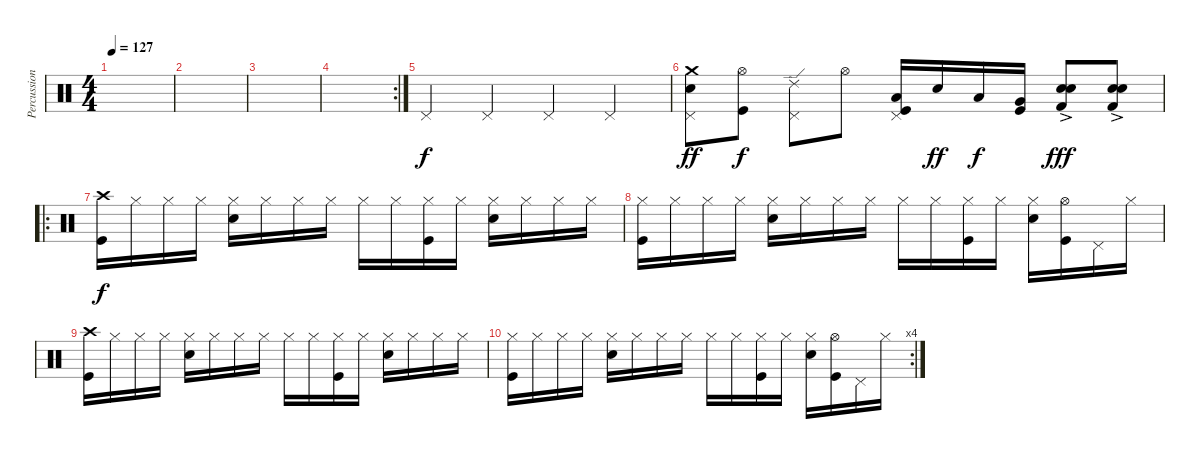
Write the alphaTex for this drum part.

\track ("Percussion" "Percussion") {instrument percussion}
\staff {score}
\articulation defaults
\ts (4 4)
\tempo 127
\clef neutral
\ks c
|
|
|
\rc 2
|
"Pedal Hi-Hat (hit)".4 "Pedal Hi-Hat (hit)".4 "Pedal Hi-Hat (hit)".4 "Pedal Hi-Hat (hit)".4 |
("Crash medium (hit)" "Pedal Hi-Hat (hit)" "Electric Snare (hit)").8{dy ff} ("Hi-Hat (open)" "Kick (hit)").8{dy f} ("Ride (edge) 2" "Pedal Hi-Hat (hit)").8 "Hi-Hat (open)".8 ("Pedal Hi-Hat (hit)" "Low Tom (hit)" "Kick (hit)").16 "Electric Snare (hit)".16{dy ff} "Low Tom (hit)".16{dy f} ("Very Low Tom (hit)" "Kick (hit)").16 ("Electric Snare (hit)" "Electric Snare (hit)"{ac} "Kick (hit) 2"{ac}).8{dy fff} ("Electric Snare (hit)" "Electric Snare (hit)"{ac} "Kick (hit) 2"{ac}).8 |
\ro
("Crash high (hit)" "Kick (hit)").16{dy f} "Hi-Hat (closed)".16 "Hi-Hat (closed)".16 "Hi-Hat (closed)".16 ("Hi-Hat (closed)" "Electric Snare (hit)").16 "Hi-Hat (closed)".16 "Hi-Hat (closed)".16 "Hi-Hat (closed)".16 "Hi-Hat (closed)".16 "Hi-Hat (closed)".16 ("Hi-Hat (closed)" "Kick (hit)").16 "Hi-Hat (closed)".16 ("Hi-Hat (closed)" "Electric Snare (hit)").16 "Hi-Hat (closed)".16 "Hi-Hat (closed)".16 "Hi-Hat (closed)".16 |
("Hi-Hat (closed)" "Kick (hit)").16 "Hi-Hat (closed)".16 "Hi-Hat (closed)".16 "Hi-Hat (closed)".16 ("Hi-Hat (closed)" "Electric Snare (hit)").16 "Hi-Hat (closed)".16 "Hi-Hat (closed)".16 "Hi-Hat (closed)".16 "Hi-Hat (closed)".16 "Hi-Hat (closed)".16 ("Hi-Hat (closed)" "Kick (hit)").16 "Hi-Hat (closed)".16 ("Hi-Hat (closed)" "Electric Snare (hit)").16 ("Hi-Hat (open)" "Kick (hit)").16 "Pedal Hi-Hat (hit)".16 "Hi-Hat (closed)".16 |
("Crash high (hit)" "Kick (hit)").16 "Hi-Hat (closed)".16 "Hi-Hat (closed)".16 "Hi-Hat (closed)".16 ("Hi-Hat (closed)" "Electric Snare (hit)").16 "Hi-Hat (closed)".16 "Hi-Hat (closed)".16 "Hi-Hat (closed)".16 "Hi-Hat (closed)".16 "Hi-Hat (closed)".16 ("Hi-Hat (closed)" "Kick (hit)").16 "Hi-Hat (closed)".16 ("Hi-Hat (closed)" "Electric Snare (hit)").16 "Hi-Hat (closed)".16 "Hi-Hat (closed)".16 "Hi-Hat (closed)".16 |
\rc 4
("Hi-Hat (closed)" "Kick (hit)").16 "Hi-Hat (closed)".16 "Hi-Hat (closed)".16 "Hi-Hat (closed)".16 ("Hi-Hat (closed)" "Electric Snare (hit)").16 "Hi-Hat (closed)".16 "Hi-Hat (closed)".16 "Hi-Hat (closed)".16 "Hi-Hat (closed)".16 "Hi-Hat (closed)".16 ("Hi-Hat (closed)" "Kick (hit)").16 "Hi-Hat (closed)".16 ("Hi-Hat (closed)" "Electric Snare (hit)").16 ("Hi-Hat (open)" "Kick (hit)").16 "Pedal Hi-Hat (hit)".16 "Hi-Hat (closed)".16
